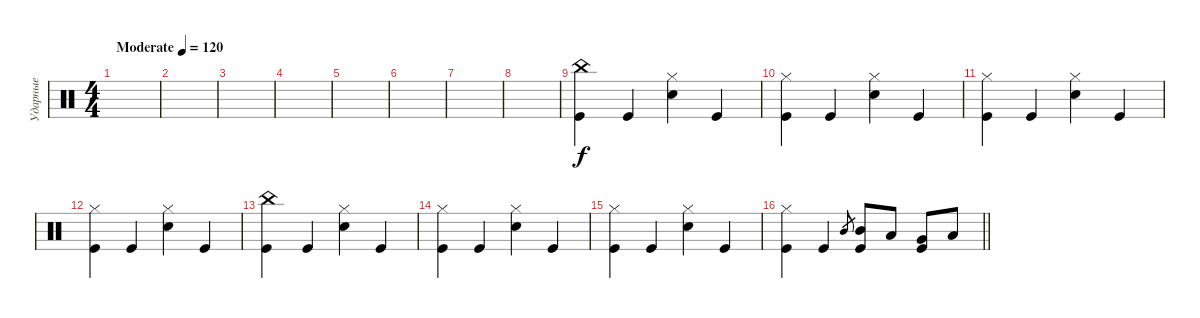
\track ("Ударные" "Ударные") {instrument percussion}
\staff {score}
\articulation defaults
\ts (4 4)
\tempo (120 "Moderate")
\clef neutral
\ks c
|
|
|
|
|
|
|
|
("China (hit)" "Kick (hit)").4 "Kick (hit)".4 ("Hi-Hat (closed)" "Electric Snare (hit)").4 "Kick (hit)".4 |
("Hi-Hat (closed)" "Kick (hit)").4 "Kick (hit)".4 ("Hi-Hat (closed)" "Electric Snare (hit)").4 "Kick (hit)".4 |
("Hi-Hat (closed)" "Kick (hit)").4 "Kick (hit)".4 ("Hi-Hat (closed)" "Electric Snare (hit)").4 "Kick (hit)".4 |
("Hi-Hat (closed)" "Kick (hit)").4 "Kick (hit)".4 ("Hi-Hat (closed)" "Electric Snare (hit)").4 "Kick (hit)".4 |
("China (hit)" "Kick (hit)").4 "Kick (hit)".4 ("Hi-Hat (closed)" "Electric Snare (hit)").4 "Kick (hit)".4 |
("Hi-Hat (closed)" "Kick (hit)").4 "Kick (hit)".4 ("Hi-Hat (closed)" "Electric Snare (hit)").4 "Kick (hit)".4 |
("Hi-Hat (closed)" "Kick (hit)").4 "Kick (hit)".4 ("Hi-Hat (closed)" "Electric Snare (hit)").4 "Kick (hit)".4 |
\barLineRight lightlight
("Hi-Hat (closed)" "Kick (hit)").4 "Kick (hit)".4 "Mid Tom (hit)".8{gr} ("Mid Tom (hit)" "Kick (hit)").8 "Low Tom (hit)".8 ("Very Low Tom (hit)" "Kick (hit)").8 "Low Floor Tom (hit)".8
